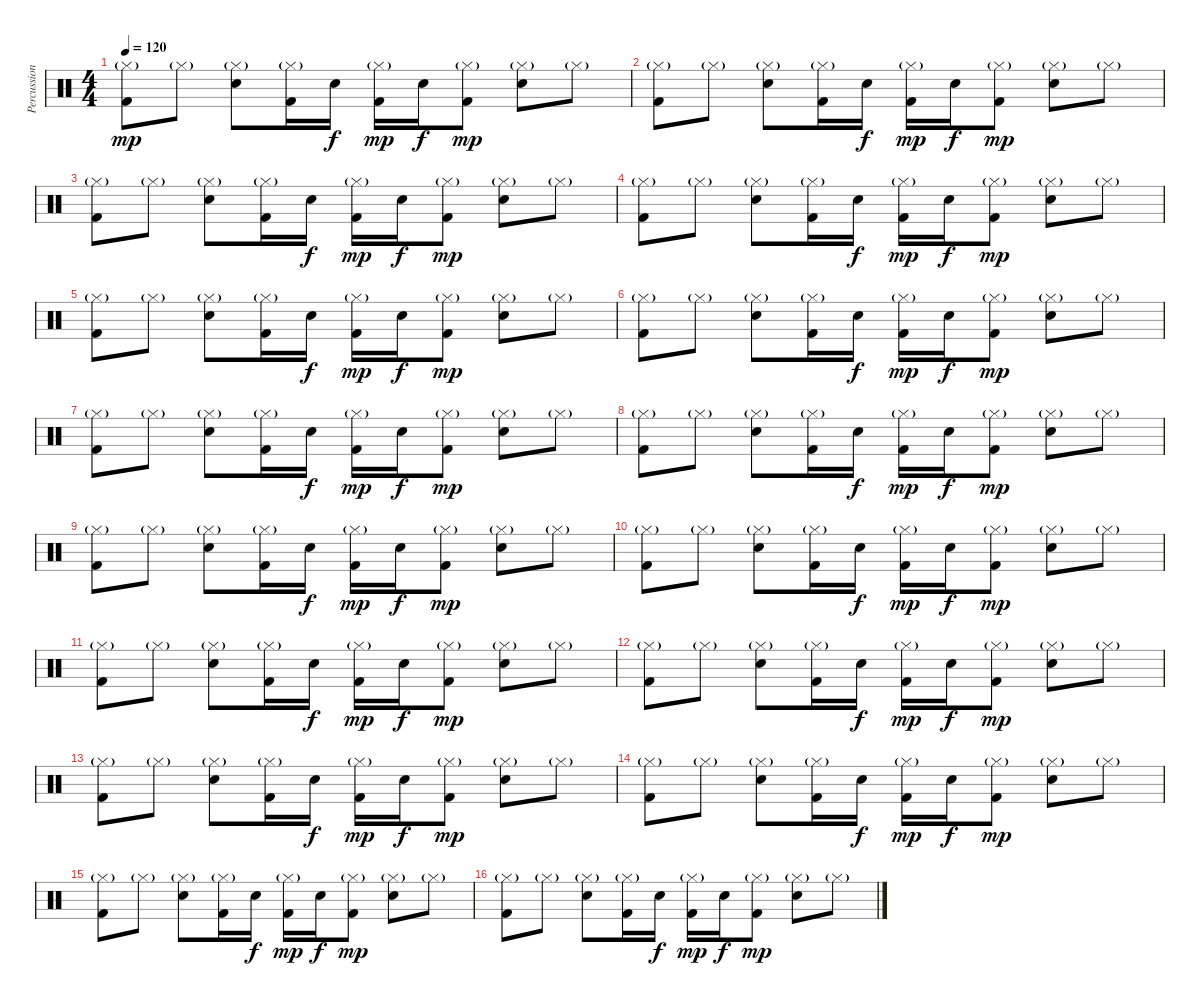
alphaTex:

\track ("Percussions" "Percussion") {instrument percussion}
\staff {score}
\articulation defaults
\ts (4 4)
\tempo 120
\clef neutral
\ks c
("Hi-Hat (closed)"{g} "Kick (hit) 2").8{dy mp} "Hi-Hat (closed)"{g}.8 ("Hi-Hat (closed)"{g} "Snare (hit) 2").8 ("Hi-Hat (closed)"{g} "Kick (hit) 2").16 "Snare (hit) 2".16{dy f} ("Hi-Hat (closed)"{g} "Kick (hit) 2").16{dy mp} "Snare (hit) 2".16{dy f} ("Hi-Hat (closed)"{g} "Kick (hit) 2").8{dy mp} ("Hi-Hat (closed)"{g} "Snare (hit) 2").8 "Hi-Hat (closed)"{g}.8 |
("Hi-Hat (closed)"{g} "Kick (hit) 2").8 "Hi-Hat (closed)"{g}.8 ("Hi-Hat (closed)"{g} "Snare (hit) 2").8 ("Hi-Hat (closed)"{g} "Kick (hit) 2").16 "Snare (hit) 2".16{dy f} ("Hi-Hat (closed)"{g} "Kick (hit) 2").16{dy mp} "Snare (hit) 2".16{dy f} ("Hi-Hat (closed)"{g} "Kick (hit) 2").8{dy mp} ("Hi-Hat (closed)"{g} "Snare (hit) 2").8 "Hi-Hat (closed)"{g}.8 |
("Hi-Hat (closed)"{g} "Kick (hit) 2").8 "Hi-Hat (closed)"{g}.8 ("Hi-Hat (closed)"{g} "Snare (hit) 2").8 ("Hi-Hat (closed)"{g} "Kick (hit) 2").16 "Snare (hit) 2".16{dy f} ("Hi-Hat (closed)"{g} "Kick (hit) 2").16{dy mp} "Snare (hit) 2".16{dy f} ("Hi-Hat (closed)"{g} "Kick (hit) 2").8{dy mp} ("Hi-Hat (closed)"{g} "Snare (hit) 2").8 "Hi-Hat (closed)"{g}.8 |
("Hi-Hat (closed)"{g} "Kick (hit) 2").8 "Hi-Hat (closed)"{g}.8 ("Hi-Hat (closed)"{g} "Snare (hit) 2").8 ("Hi-Hat (closed)"{g} "Kick (hit) 2").16 "Snare (hit) 2".16{dy f} ("Hi-Hat (closed)"{g} "Kick (hit) 2").16{dy mp} "Snare (hit) 2".16{dy f} ("Hi-Hat (closed)"{g} "Kick (hit) 2").8{dy mp} ("Hi-Hat (closed)"{g} "Snare (hit) 2").8 "Hi-Hat (closed)"{g}.8 |
("Hi-Hat (closed)"{g} "Kick (hit) 2").8 "Hi-Hat (closed)"{g}.8 ("Hi-Hat (closed)"{g} "Snare (hit) 2").8 ("Hi-Hat (closed)"{g} "Kick (hit) 2").16 "Snare (hit) 2".16{dy f} ("Hi-Hat (closed)"{g} "Kick (hit) 2").16{dy mp} "Snare (hit) 2".16{dy f} ("Hi-Hat (closed)"{g} "Kick (hit) 2").8{dy mp} ("Hi-Hat (closed)"{g} "Snare (hit) 2").8 "Hi-Hat (closed)"{g}.8 |
("Hi-Hat (closed)"{g} "Kick (hit) 2").8 "Hi-Hat (closed)"{g}.8 ("Hi-Hat (closed)"{g} "Snare (hit) 2").8 ("Hi-Hat (closed)"{g} "Kick (hit) 2").16 "Snare (hit) 2".16{dy f} ("Hi-Hat (closed)"{g} "Kick (hit) 2").16{dy mp} "Snare (hit) 2".16{dy f} ("Hi-Hat (closed)"{g} "Kick (hit) 2").8{dy mp} ("Hi-Hat (closed)"{g} "Snare (hit) 2").8 "Hi-Hat (closed)"{g}.8 |
("Hi-Hat (closed)"{g} "Kick (hit) 2").8 "Hi-Hat (closed)"{g}.8 ("Hi-Hat (closed)"{g} "Snare (hit) 2").8 ("Hi-Hat (closed)"{g} "Kick (hit) 2").16 "Snare (hit) 2".16{dy f} ("Hi-Hat (closed)"{g} "Kick (hit) 2").16{dy mp} "Snare (hit) 2".16{dy f} ("Hi-Hat (closed)"{g} "Kick (hit) 2").8{dy mp} ("Hi-Hat (closed)"{g} "Snare (hit) 2").8 "Hi-Hat (closed)"{g}.8 |
("Hi-Hat (closed)"{g} "Kick (hit) 2").8 "Hi-Hat (closed)"{g}.8 ("Hi-Hat (closed)"{g} "Snare (hit) 2").8 ("Hi-Hat (closed)"{g} "Kick (hit) 2").16 "Snare (hit) 2".16{dy f} ("Hi-Hat (closed)"{g} "Kick (hit) 2").16{dy mp} "Snare (hit) 2".16{dy f} ("Hi-Hat (closed)"{g} "Kick (hit) 2").8{dy mp} ("Hi-Hat (closed)"{g} "Snare (hit) 2").8 "Hi-Hat (closed)"{g}.8 |
("Hi-Hat (closed)"{g} "Kick (hit) 2").8 "Hi-Hat (closed)"{g}.8 ("Hi-Hat (closed)"{g} "Snare (hit) 2").8 ("Hi-Hat (closed)"{g} "Kick (hit) 2").16 "Snare (hit) 2".16{dy f} ("Hi-Hat (closed)"{g} "Kick (hit) 2").16{dy mp} "Snare (hit) 2".16{dy f} ("Hi-Hat (closed)"{g} "Kick (hit) 2").8{dy mp} ("Hi-Hat (closed)"{g} "Snare (hit) 2").8 "Hi-Hat (closed)"{g}.8 |
("Hi-Hat (closed)"{g} "Kick (hit) 2").8 "Hi-Hat (closed)"{g}.8 ("Hi-Hat (closed)"{g} "Snare (hit) 2").8 ("Hi-Hat (closed)"{g} "Kick (hit) 2").16 "Snare (hit) 2".16{dy f} ("Hi-Hat (closed)"{g} "Kick (hit) 2").16{dy mp} "Snare (hit) 2".16{dy f} ("Hi-Hat (closed)"{g} "Kick (hit) 2").8{dy mp} ("Hi-Hat (closed)"{g} "Snare (hit) 2").8 "Hi-Hat (closed)"{g}.8 |
("Hi-Hat (closed)"{g} "Kick (hit) 2").8 "Hi-Hat (closed)"{g}.8 ("Hi-Hat (closed)"{g} "Snare (hit) 2").8 ("Hi-Hat (closed)"{g} "Kick (hit) 2").16 "Snare (hit) 2".16{dy f} ("Hi-Hat (closed)"{g} "Kick (hit) 2").16{dy mp} "Snare (hit) 2".16{dy f} ("Hi-Hat (closed)"{g} "Kick (hit) 2").8{dy mp} ("Hi-Hat (closed)"{g} "Snare (hit) 2").8 "Hi-Hat (closed)"{g}.8 |
("Hi-Hat (closed)"{g} "Kick (hit) 2").8 "Hi-Hat (closed)"{g}.8 ("Hi-Hat (closed)"{g} "Snare (hit) 2").8 ("Hi-Hat (closed)"{g} "Kick (hit) 2").16 "Snare (hit) 2".16{dy f} ("Hi-Hat (closed)"{g} "Kick (hit) 2").16{dy mp} "Snare (hit) 2".16{dy f} ("Hi-Hat (closed)"{g} "Kick (hit) 2").8{dy mp} ("Hi-Hat (closed)"{g} "Snare (hit) 2").8 "Hi-Hat (closed)"{g}.8 |
("Hi-Hat (closed)"{g} "Kick (hit) 2").8 "Hi-Hat (closed)"{g}.8 ("Hi-Hat (closed)"{g} "Snare (hit) 2").8 ("Hi-Hat (closed)"{g} "Kick (hit) 2").16 "Snare (hit) 2".16{dy f} ("Hi-Hat (closed)"{g} "Kick (hit) 2").16{dy mp} "Snare (hit) 2".16{dy f} ("Hi-Hat (closed)"{g} "Kick (hit) 2").8{dy mp} ("Hi-Hat (closed)"{g} "Snare (hit) 2").8 "Hi-Hat (closed)"{g}.8 |
("Hi-Hat (closed)"{g} "Kick (hit) 2").8 "Hi-Hat (closed)"{g}.8 ("Hi-Hat (closed)"{g} "Snare (hit) 2").8 ("Hi-Hat (closed)"{g} "Kick (hit) 2").16 "Snare (hit) 2".16{dy f} ("Hi-Hat (closed)"{g} "Kick (hit) 2").16{dy mp} "Snare (hit) 2".16{dy f} ("Hi-Hat (closed)"{g} "Kick (hit) 2").8{dy mp} ("Hi-Hat (closed)"{g} "Snare (hit) 2").8 "Hi-Hat (closed)"{g}.8 |
("Hi-Hat (closed)"{g} "Kick (hit) 2").8 "Hi-Hat (closed)"{g}.8 ("Hi-Hat (closed)"{g} "Snare (hit) 2").8 ("Hi-Hat (closed)"{g} "Kick (hit) 2").16 "Snare (hit) 2".16{dy f} ("Hi-Hat (closed)"{g} "Kick (hit) 2").16{dy mp} "Snare (hit) 2".16{dy f} ("Hi-Hat (closed)"{g} "Kick (hit) 2").8{dy mp} ("Hi-Hat (closed)"{g} "Snare (hit) 2").8 "Hi-Hat (closed)"{g}.8 |
("Hi-Hat (closed)"{g} "Kick (hit) 2").8 "Hi-Hat (closed)"{g}.8 ("Hi-Hat (closed)"{g} "Snare (hit) 2").8 ("Hi-Hat (closed)"{g} "Kick (hit) 2").16 "Snare (hit) 2".16{dy f} ("Hi-Hat (closed)"{g} "Kick (hit) 2").16{dy mp} "Snare (hit) 2".16{dy f} ("Hi-Hat (closed)"{g} "Kick (hit) 2").8{dy mp} ("Hi-Hat (closed)"{g} "Snare (hit) 2").8 "Hi-Hat (closed)"{g}.8
